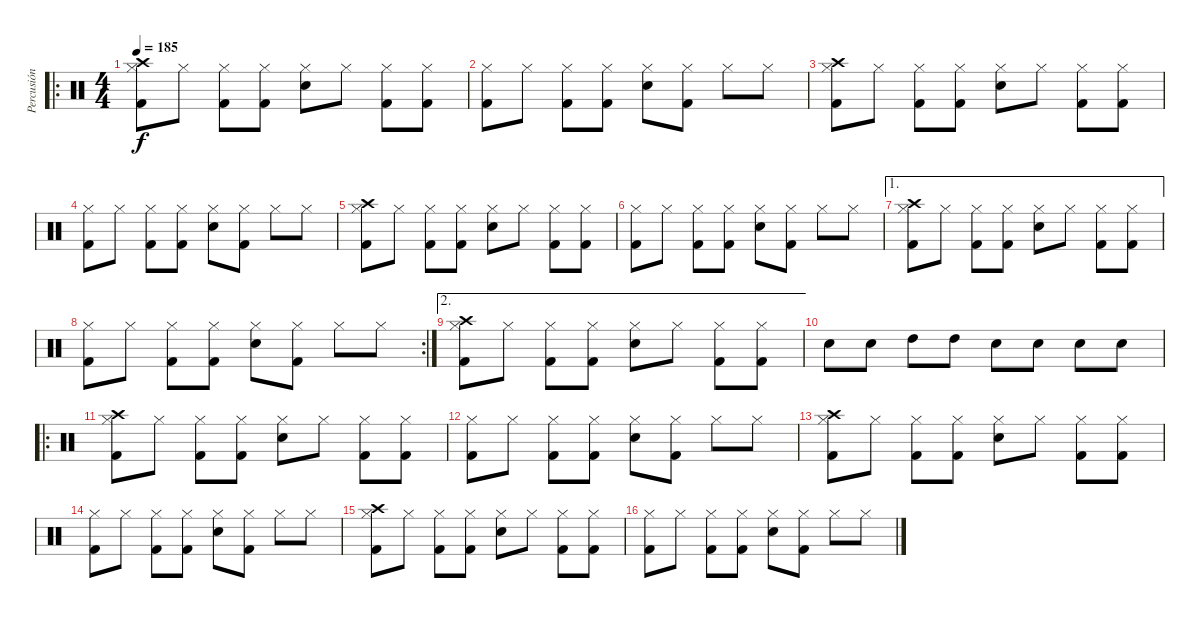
\track ("Percusión" "Percusión") {instrument percussion}
\staff {score}
\articulation defaults
\ro
\ts (4 4)
\tempo 185
\clef neutral
\ks c
("Crash high (hit)" "Hi-Hat (closed)" "Kick (hit) 2").8{dy f} "Hi-Hat (closed)".8 ("Hi-Hat (closed)" "Kick (hit) 2").8 ("Hi-Hat (closed)" "Kick (hit) 2").8 ("Electric Snare (hit)" "Hi-Hat (closed)").8 "Hi-Hat (closed)".8 ("Hi-Hat (closed)" "Kick (hit) 2").8 ("Hi-Hat (closed)" "Kick (hit) 2").8 |
("Hi-Hat (closed)" "Kick (hit) 2").8 "Hi-Hat (closed)".8 ("Hi-Hat (closed)" "Kick (hit) 2").8 ("Hi-Hat (closed)" "Kick (hit) 2").8 ("Electric Snare (hit)" "Hi-Hat (closed)").8 ("Hi-Hat (closed)" "Kick (hit) 2").8 "Hi-Hat (closed)".8 "Hi-Hat (closed)".8 |
("Crash high (hit)" "Hi-Hat (closed)" "Kick (hit) 2").8 "Hi-Hat (closed)".8 ("Hi-Hat (closed)" "Kick (hit) 2").8 ("Hi-Hat (closed)" "Kick (hit) 2").8 ("Electric Snare (hit)" "Hi-Hat (closed)").8 "Hi-Hat (closed)".8 ("Hi-Hat (closed)" "Kick (hit) 2").8 ("Hi-Hat (closed)" "Kick (hit) 2").8 |
("Hi-Hat (closed)" "Kick (hit) 2").8 "Hi-Hat (closed)".8 ("Hi-Hat (closed)" "Kick (hit) 2").8 ("Hi-Hat (closed)" "Kick (hit) 2").8 ("Electric Snare (hit)" "Hi-Hat (closed)").8 ("Hi-Hat (closed)" "Kick (hit) 2").8 "Hi-Hat (closed)".8 "Hi-Hat (closed)".8 |
("Crash high (hit)" "Hi-Hat (closed)" "Kick (hit) 2").8 "Hi-Hat (closed)".8 ("Hi-Hat (closed)" "Kick (hit) 2").8 ("Hi-Hat (closed)" "Kick (hit) 2").8 ("Electric Snare (hit)" "Hi-Hat (closed)").8 "Hi-Hat (closed)".8 ("Hi-Hat (closed)" "Kick (hit) 2").8 ("Hi-Hat (closed)" "Kick (hit) 2").8 |
("Hi-Hat (closed)" "Kick (hit) 2").8 "Hi-Hat (closed)".8 ("Hi-Hat (closed)" "Kick (hit) 2").8 ("Hi-Hat (closed)" "Kick (hit) 2").8 ("Electric Snare (hit)" "Hi-Hat (closed)").8 ("Hi-Hat (closed)" "Kick (hit) 2").8 "Hi-Hat (closed)".8 "Hi-Hat (closed)".8 |
\ae 1
("Crash high (hit)" "Hi-Hat (closed)" "Kick (hit) 2").8 "Hi-Hat (closed)".8 ("Hi-Hat (closed)" "Kick (hit) 2").8 ("Hi-Hat (closed)" "Kick (hit) 2").8 ("Electric Snare (hit)" "Hi-Hat (closed)").8 "Hi-Hat (closed)".8 ("Hi-Hat (closed)" "Kick (hit) 2").8 ("Hi-Hat (closed)" "Kick (hit) 2").8 |
\rc 2
("Hi-Hat (closed)" "Kick (hit) 2").8 "Hi-Hat (closed)".8 ("Hi-Hat (closed)" "Kick (hit) 2").8 ("Hi-Hat (closed)" "Kick (hit) 2").8 ("Electric Snare (hit)" "Hi-Hat (closed)").8 ("Hi-Hat (closed)" "Kick (hit) 2").8 "Hi-Hat (closed)".8 "Hi-Hat (closed)".8 |
\ae 2
("Crash high (hit)" "Hi-Hat (closed)" "Kick (hit) 2").8 "Hi-Hat (closed)".8 ("Hi-Hat (closed)" "Kick (hit) 2").8 ("Hi-Hat (closed)" "Kick (hit) 2").8 ("Electric Snare (hit)" "Hi-Hat (closed)").8 "Hi-Hat (closed)".8 ("Hi-Hat (closed)" "Kick (hit) 2").8 ("Hi-Hat (closed)" "Kick (hit) 2").8 |
"Electric Snare (hit)".8 "Electric Snare (hit)".8 "High Tom (hit)".8 "High Tom (hit)".8 "Electric Snare (hit)".8 "Electric Snare (hit)".8 "Electric Snare (hit)".8 "Electric Snare (hit)".8 |
\ro
("Crash high (hit)" "Hi-Hat (closed)" "Kick (hit) 2").8 "Hi-Hat (closed)".8 ("Hi-Hat (closed)" "Kick (hit) 2").8 ("Hi-Hat (closed)" "Kick (hit) 2").8 ("Electric Snare (hit)" "Hi-Hat (closed)").8 "Hi-Hat (closed)".8 ("Hi-Hat (closed)" "Kick (hit) 2").8 ("Hi-Hat (closed)" "Kick (hit) 2").8 |
("Hi-Hat (closed)" "Kick (hit) 2").8 "Hi-Hat (closed)".8 ("Hi-Hat (closed)" "Kick (hit) 2").8 ("Hi-Hat (closed)" "Kick (hit) 2").8 ("Electric Snare (hit)" "Hi-Hat (closed)").8 ("Hi-Hat (closed)" "Kick (hit) 2").8 "Hi-Hat (closed)".8 "Hi-Hat (closed)".8 |
("Crash high (hit)" "Hi-Hat (closed)" "Kick (hit) 2").8 "Hi-Hat (closed)".8 ("Hi-Hat (closed)" "Kick (hit) 2").8 ("Hi-Hat (closed)" "Kick (hit) 2").8 ("Electric Snare (hit)" "Hi-Hat (closed)").8 "Hi-Hat (closed)".8 ("Hi-Hat (closed)" "Kick (hit) 2").8 ("Hi-Hat (closed)" "Kick (hit) 2").8 |
("Hi-Hat (closed)" "Kick (hit) 2").8 "Hi-Hat (closed)".8 ("Hi-Hat (closed)" "Kick (hit) 2").8 ("Hi-Hat (closed)" "Kick (hit) 2").8 ("Electric Snare (hit)" "Hi-Hat (closed)").8 ("Hi-Hat (closed)" "Kick (hit) 2").8 "Hi-Hat (closed)".8 "Hi-Hat (closed)".8 |
("Crash high (hit)" "Hi-Hat (closed)" "Kick (hit) 2").8 "Hi-Hat (closed)".8 ("Hi-Hat (closed)" "Kick (hit) 2").8 ("Hi-Hat (closed)" "Kick (hit) 2").8 ("Electric Snare (hit)" "Hi-Hat (closed)").8 "Hi-Hat (closed)".8 ("Hi-Hat (closed)" "Kick (hit) 2").8 ("Hi-Hat (closed)" "Kick (hit) 2").8 |
("Hi-Hat (closed)" "Kick (hit) 2").8 "Hi-Hat (closed)".8 ("Hi-Hat (closed)" "Kick (hit) 2").8 ("Hi-Hat (closed)" "Kick (hit) 2").8 ("Electric Snare (hit)" "Hi-Hat (closed)").8 ("Hi-Hat (closed)" "Kick (hit) 2").8 "Hi-Hat (closed)".8 "Hi-Hat (closed)".8
